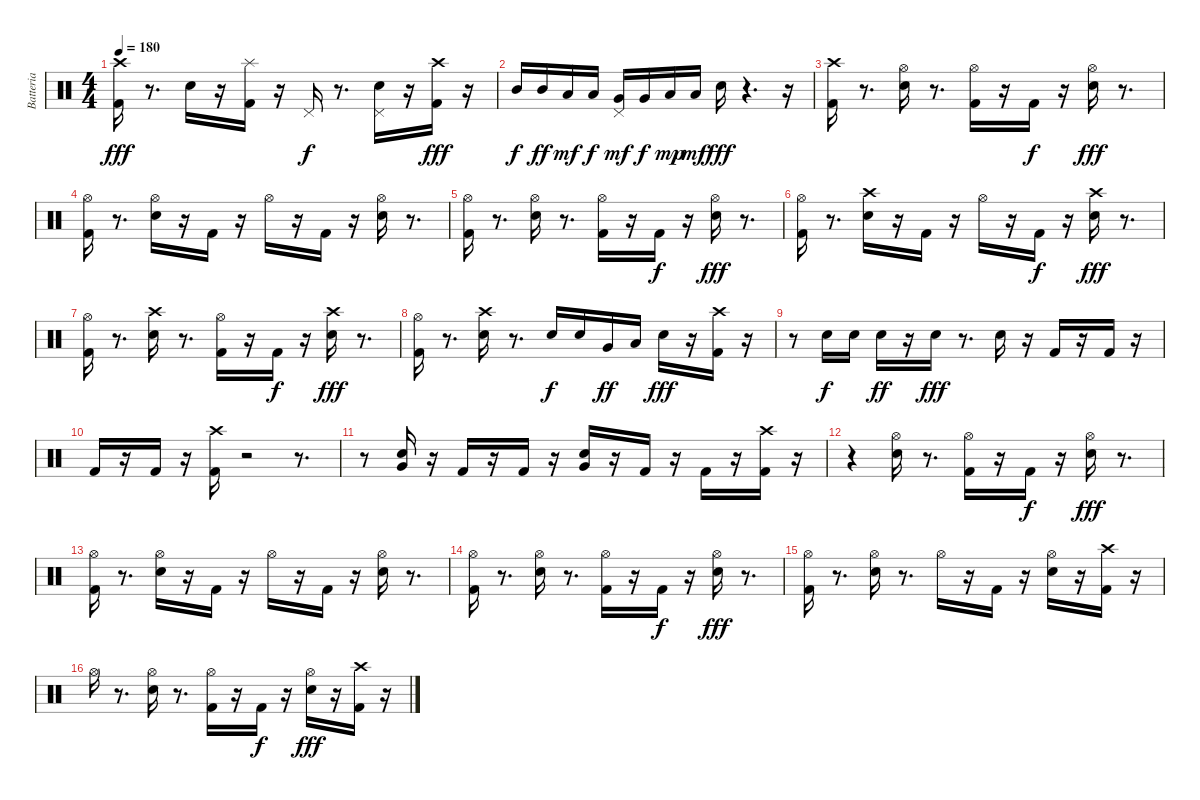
\track ("Batteria" "Batteria") {instrument percussion}
\staff {score}
\articulation defaults
\ts (4 4)
\tempo 180
\clef neutral
\ks c
("Kick (hit) 2" "Crash high (hit)").16{dy fff} r.8{d} "Electric Snare (hit)".16 r.16 ("Kick (hit) 2" "Splash (hit)").16 r.16 "Pedal Hi-Hat (hit)".16{dy f} r.8{d} ("Electric Snare (hit)" "Pedal Hi-Hat (hit)").16 r.16 ("Kick (hit) 2" "Crash high (hit)").16{dy fff} r.16 |
"Mid Tom (hit)".16{dy f} "Mid Tom (hit)".16{dy ff} "Low Tom (hit)".16{dy mf} "Low Tom (hit)".16{dy f} ("Pedal Hi-Hat (hit)" "Very Low Tom (hit)").16{dy mf} "Very Low Tom (hit)".16{dy f} "Low Floor Tom (hit)".16{dy mp} "Low Floor Tom (hit)".16{dy mf} "Electric Snare (hit)".16{dy fff} r.4{d} r.16 |
("Kick (hit) 2" "Crash high (hit)").16 r.8{d} ("Hi-Hat (open)" "Electric Snare (hit)").16 r.8{d} ("Hi-Hat (open)" "Kick (hit) 2").16 r.16 "Kick (hit) 2".16{dy f} r.16 ("Hi-Hat (open)" "Electric Snare (hit)").16{dy fff} r.8{d} |
("Kick (hit) 2" "Hi-Hat (open)").16 r.8{d} ("Hi-Hat (open)" "Electric Snare (hit)").16 r.16 "Kick (hit) 2".16 r.16 "Hi-Hat (open)".16 r.16 "Kick (hit) 2".16 r.16 ("Hi-Hat (open)" "Electric Snare (hit)").16 r.8{d} |
("Kick (hit) 2" "Hi-Hat (open)").16 r.8{d} ("Hi-Hat (open)" "Electric Snare (hit)").16 r.8{d} ("Hi-Hat (open)" "Kick (hit) 2").16 r.16 "Kick (hit) 2".16{dy f} r.16 ("Hi-Hat (open)" "Electric Snare (hit)").16{dy fff} r.8{d} |
("Kick (hit) 2" "Hi-Hat (open)").16 r.8{d} ("Crash high (hit)" "Electric Snare (hit)").16 r.16 "Kick (hit) 2".16 r.16 "Hi-Hat (open)".16 r.16 "Kick (hit) 2".16{dy f} r.16 ("Crash high (hit)" "Electric Snare (hit)").16{dy fff} r.8{d} |
("Kick (hit) 2" "Hi-Hat (open)").16 r.8{d} ("Crash high (hit)" "Electric Snare (hit)").16 r.8{d} ("Hi-Hat (open)" "Kick (hit) 2").16 r.16 "Kick (hit) 2".16{dy f} r.16 ("Crash high (hit)" "Electric Snare (hit)").16{dy fff} r.8{d} |
("Hi-Hat (open)" "Kick (hit) 2").16 r.8{d} ("Crash high (hit)" "Electric Snare (hit)").16 r.8{d} "Electric Snare (hit)".16{dy f} "Electric Snare (hit)".16 "Very Low Tom (hit)".16{dy ff} "Low Floor Tom (hit)".16 "Electric Snare (hit)".16{dy fff} r.16 ("Crash high (hit)" "Kick (hit) 2").16 r.16 |
r.8 "Electric Snare (hit)".16{dy f} "Electric Snare (hit)".16 "Electric Snare (hit)".16{dy ff} r.16 "Electric Snare (hit)".16{dy fff} r.8{d} "Electric Snare (hit)".16 r.16 "Kick (hit) 2".16 r.16 "Kick (hit) 2".16 r.16 |
"Kick (hit) 2".16 r.16 "Kick (hit) 2".16 r.16 ("Crash high (hit)" "Kick (hit) 2").16 r.2 r.8{d} |
r.8 ("Very Low Tom (hit)" "Electric Snare (hit)").16 r.16 "Kick (hit) 2".16 r.16 "Kick (hit) 2".16 r.16 ("Very Low Tom (hit)" "Electric Snare (hit)").16 r.16 "Kick (hit) 2".16 r.16 "Kick (hit) 2".16 r.16 ("Crash high (hit)" "Kick (hit) 2").16 r.16 |
r.4 ("Hi-Hat (open)" "Electric Snare (hit)").16 r.8{d} ("Hi-Hat (open)" "Kick (hit) 2").16 r.16 "Kick (hit) 2".16{dy f} r.16 ("Hi-Hat (open)" "Electric Snare (hit)").16{dy fff} r.8{d} |
("Kick (hit) 2" "Hi-Hat (open)").16 r.8{d} ("Hi-Hat (open)" "Electric Snare (hit)").16 r.16 "Kick (hit) 2".16 r.16 "Hi-Hat (open)".16 r.16 "Kick (hit) 2".16 r.16 ("Hi-Hat (open)" "Electric Snare (hit)").16 r.8{d} |
("Kick (hit) 2" "Hi-Hat (open)").16 r.8{d} ("Hi-Hat (open)" "Electric Snare (hit)").16 r.8{d} ("Kick (hit) 2" "Hi-Hat (open)").16 r.16 "Kick (hit) 2".16{dy f} r.16 ("Electric Snare (hit)" "Hi-Hat (open)").16{dy fff} r.8{d} |
("Hi-Hat (open)" "Kick (hit) 2").16 r.8{d} ("Electric Snare (hit)" "Hi-Hat (open)").16 r.8{d} "Hi-Hat (open)".16 r.16 "Kick (hit) 2".16 r.16 ("Electric Snare (hit)" "Hi-Hat (open)").16 r.16 ("Kick (hit) 2" "Crash high (hit)").16 r.16 |
"Hi-Hat (open)".16 r.8{d} ("Electric Snare (hit)" "Hi-Hat (open)").16 r.8{d} ("Kick (hit) 2" "Hi-Hat (open)").16 r.16 "Kick (hit) 2".16{dy f} r.16 ("Electric Snare (hit)" "Hi-Hat (open)").16{dy fff} r.16 ("Kick (hit) 2" "Crash high (hit)").16 r.16
